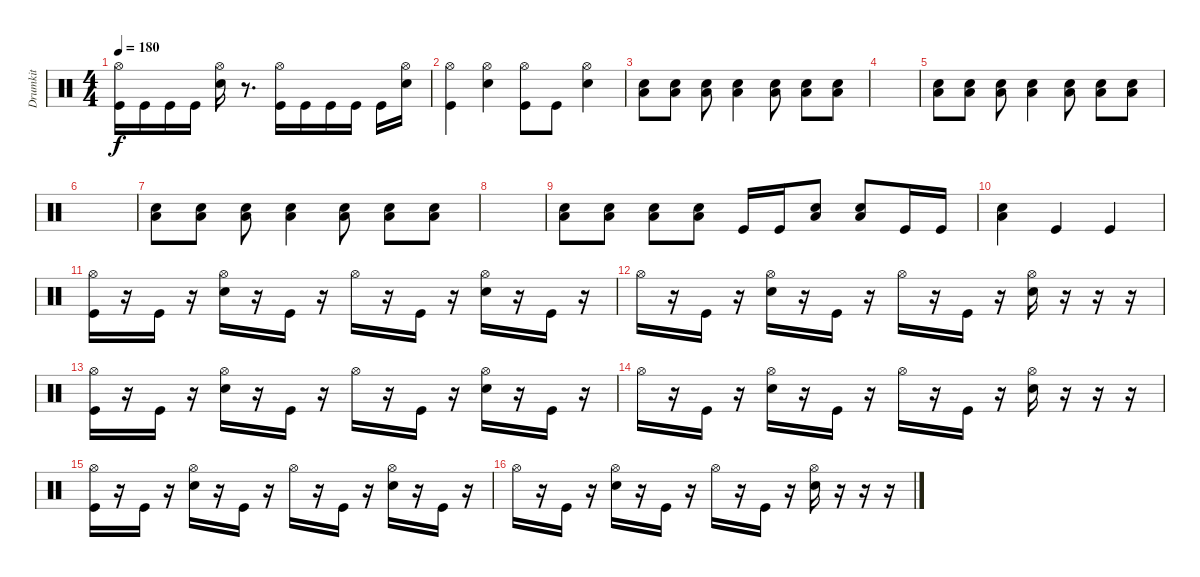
\track ("Drumkit" "Drumkit") {instrument percussion}
\staff {score}
\articulation defaults
\ts (4 4)
\tempo 180
\clef neutral
\ks c
("Hi-Hat (open)" "Kick (hit)").16{dy f} "Kick (hit)".16 "Kick (hit)".16 "Kick (hit)".16 ("Hi-Hat (open)" "Snare (hit) 2").16 r.8{d} ("Hi-Hat (open)" "Kick (hit)").16 "Kick (hit)".16 "Kick (hit)".16 "Kick (hit)".16 "Kick (hit)".16 ("Hi-Hat (open)" "Snare (hit) 2").16 |
("Hi-Hat (open)" "Kick (hit)").4 ("Hi-Hat (open)" "Snare (hit) 2").4 ("Hi-Hat (open)" "Kick (hit)").8 "Kick (hit)".8 ("Hi-Hat (open)" "Snare (hit) 2").4 |
("Snare (hit) 2" "Low Floor Tom (hit)").8 ("Snare (hit) 2" "Low Floor Tom (hit)").8 ("Snare (hit) 2" "Low Floor Tom (hit)").8 ("Snare (hit) 2" "Low Floor Tom (hit)").4 ("Snare (hit) 2" "Low Floor Tom (hit)").8 ("Snare (hit) 2" "Low Floor Tom (hit)").8 ("Snare (hit) 2" "Low Floor Tom (hit)").8 |
|
("Snare (hit) 2" "Low Floor Tom (hit)").8 ("Snare (hit) 2" "Low Floor Tom (hit)").8 ("Snare (hit) 2" "Low Floor Tom (hit)").8 ("Snare (hit) 2" "Low Floor Tom (hit)").4 ("Snare (hit) 2" "Low Floor Tom (hit)").8 ("Snare (hit) 2" "Low Floor Tom (hit)").8 ("Snare (hit) 2" "Low Floor Tom (hit)").8 |
|
("Snare (hit) 2" "Low Floor Tom (hit)").8 ("Snare (hit) 2" "Low Floor Tom (hit)").8 ("Snare (hit) 2" "Low Floor Tom (hit)").8 ("Snare (hit) 2" "Low Floor Tom (hit)").4 ("Snare (hit) 2" "Low Floor Tom (hit)").8 ("Snare (hit) 2" "Low Floor Tom (hit)").8 ("Snare (hit) 2" "Low Floor Tom (hit)").8 |
|
("Snare (hit) 2" "Low Floor Tom (hit)").8 ("Snare (hit) 2" "Low Floor Tom (hit)").8 ("Snare (hit) 2" "Low Floor Tom (hit)").8 ("Snare (hit) 2" "Low Floor Tom (hit)").8 "Kick (hit)".16 "Kick (hit)".16 ("Snare (hit) 2" "Low Floor Tom (hit)").8 ("Snare (hit) 2" "Low Floor Tom (hit)").8 "Kick (hit)".16 "Kick (hit)".16 |
("Snare (hit) 2" "Low Floor Tom (hit)").4 "Kick (hit)".4 "Kick (hit)".4 |
("Hi-Hat (open)" "Kick (hit)").16 r.16 "Kick (hit)".16 r.16 ("Hi-Hat (open)" "Snare (hit) 2").16 r.16 "Kick (hit)".16 r.16 "Hi-Hat (open)".16 r.16 "Kick (hit)".16 r.16 ("Hi-Hat (open)" "Snare (hit) 2").16 r.16 "Kick (hit)".16 r.16 |
"Hi-Hat (open)".16 r.16 "Kick (hit)".16 r.16 ("Hi-Hat (open)" "Snare (hit) 2").16 r.16 "Kick (hit)".16 r.16 "Hi-Hat (open)".16 r.16 "Kick (hit)".16 r.16 ("Hi-Hat (open)" "Snare (hit) 2").16 r.16 r.16 r.16 |
("Hi-Hat (open)" "Kick (hit)").16 r.16 "Kick (hit)".16 r.16 ("Hi-Hat (open)" "Snare (hit) 2").16 r.16 "Kick (hit)".16 r.16 "Hi-Hat (open)".16 r.16 "Kick (hit)".16 r.16 ("Hi-Hat (open)" "Snare (hit) 2").16 r.16 "Kick (hit)".16 r.16 |
"Hi-Hat (open)".16 r.16 "Kick (hit)".16 r.16 ("Hi-Hat (open)" "Snare (hit) 2").16 r.16 "Kick (hit)".16 r.16 "Hi-Hat (open)".16 r.16 "Kick (hit)".16 r.16 ("Hi-Hat (open)" "Snare (hit) 2").16 r.16 r.16 r.16 |
("Hi-Hat (open)" "Kick (hit)").16 r.16 "Kick (hit)".16 r.16 ("Hi-Hat (open)" "Snare (hit) 2").16 r.16 "Kick (hit)".16 r.16 "Hi-Hat (open)".16 r.16 "Kick (hit)".16 r.16 ("Hi-Hat (open)" "Snare (hit) 2").16 r.16 "Kick (hit)".16 r.16 |
"Hi-Hat (open)".16 r.16 "Kick (hit)".16 r.16 ("Hi-Hat (open)" "Snare (hit) 2").16 r.16 "Kick (hit)".16 r.16 "Hi-Hat (open)".16 r.16 "Kick (hit)".16 r.16 ("Hi-Hat (open)" "Snare (hit) 2").16 r.16 r.16 r.16
